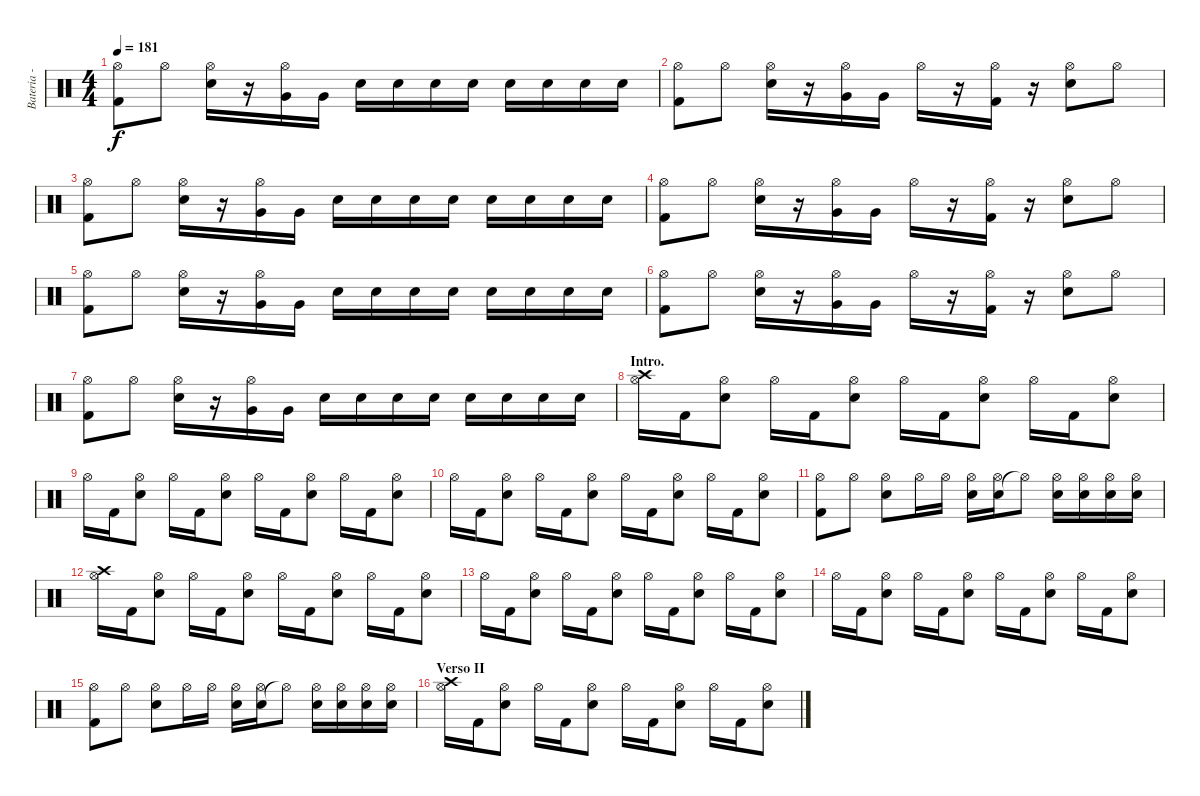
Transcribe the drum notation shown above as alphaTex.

\track ("Bateria - Larzon" "Bateria - ") {instrument percussion}
\staff {score}
\articulation defaults
\ts (4 4)
\tempo 181
\clef neutral
\ks c
("Kick (hit) 2" "Hi-Hat (open)").8{dy f} "Hi-Hat (open)".8 ("Electric Snare (hit)" "Hi-Hat (open)").16 r.16 ("Very Low Tom (hit)" "Hi-Hat (open)").16 "Very Low Tom (hit)".16 "Electric Snare (hit)".16 "Electric Snare (hit)".16 "Electric Snare (hit)".16 "Electric Snare (hit)".16 "Electric Snare (hit)".16 "Electric Snare (hit)".16 "Electric Snare (hit)".16 "Electric Snare (hit)".16 |
("Kick (hit) 2" "Hi-Hat (open)").8 "Hi-Hat (open)".8 ("Electric Snare (hit)" "Hi-Hat (open)").16 r.16 ("Very Low Tom (hit)" "Hi-Hat (open)").16 "Very Low Tom (hit)".16 "Hi-Hat (open)".16 r.16 ("Kick (hit) 2" "Hi-Hat (open)").16 r.16 ("Electric Snare (hit)" "Hi-Hat (open)").8 "Hi-Hat (open)".8 |
("Kick (hit) 2" "Hi-Hat (open)").8 "Hi-Hat (open)".8 ("Electric Snare (hit)" "Hi-Hat (open)").16 r.16 ("Very Low Tom (hit)" "Hi-Hat (open)").16 "Very Low Tom (hit)".16 "Electric Snare (hit)".16 "Electric Snare (hit)".16 "Electric Snare (hit)".16 "Electric Snare (hit)".16 "Electric Snare (hit)".16 "Electric Snare (hit)".16 "Electric Snare (hit)".16 "Electric Snare (hit)".16 |
("Kick (hit) 2" "Hi-Hat (open)").8 "Hi-Hat (open)".8 ("Electric Snare (hit)" "Hi-Hat (open)").16 r.16 ("Very Low Tom (hit)" "Hi-Hat (open)").16 "Very Low Tom (hit)".16 "Hi-Hat (open)".16 r.16 ("Kick (hit) 2" "Hi-Hat (open)").16 r.16 ("Electric Snare (hit)" "Hi-Hat (open)").8 "Hi-Hat (open)".8 |
("Kick (hit) 2" "Hi-Hat (open)").8 "Hi-Hat (open)".8 ("Electric Snare (hit)" "Hi-Hat (open)").16 r.16 ("Very Low Tom (hit)" "Hi-Hat (open)").16 "Very Low Tom (hit)".16 "Electric Snare (hit)".16 "Electric Snare (hit)".16 "Electric Snare (hit)".16 "Electric Snare (hit)".16 "Electric Snare (hit)".16 "Electric Snare (hit)".16 "Electric Snare (hit)".16 "Electric Snare (hit)".16 |
("Kick (hit) 2" "Hi-Hat (open)").8 "Hi-Hat (open)".8 ("Electric Snare (hit)" "Hi-Hat (open)").16 r.16 ("Very Low Tom (hit)" "Hi-Hat (open)").16 "Very Low Tom (hit)".16 "Hi-Hat (open)".16 r.16 ("Kick (hit) 2" "Hi-Hat (open)").16 r.16 ("Electric Snare (hit)" "Hi-Hat (open)").8 "Hi-Hat (open)".8 |
("Kick (hit) 2" "Hi-Hat (open)").8 "Hi-Hat (open)".8 ("Electric Snare (hit)" "Hi-Hat (open)").16 r.16 ("Very Low Tom (hit)" "Hi-Hat (open)").16 "Very Low Tom (hit)".16 "Electric Snare (hit)".16 "Electric Snare (hit)".16 "Electric Snare (hit)".16 "Electric Snare (hit)".16 "Electric Snare (hit)".16 "Electric Snare (hit)".16 "Electric Snare (hit)".16 "Electric Snare (hit)".16 |
\section ("" "Intro.")
("Crash high (hit)" "Hi-Hat (open)").16 "Kick (hit) 2".16 ("Electric Snare (hit)" "Hi-Hat (open)").8 "Hi-Hat (open)".16 "Kick (hit) 2".16 ("Electric Snare (hit)" "Hi-Hat (open)").8 "Hi-Hat (open)".16 "Kick (hit) 2".16 ("Electric Snare (hit)" "Hi-Hat (open)").8 "Hi-Hat (open)".16 "Kick (hit) 2".16 ("Electric Snare (hit)" "Hi-Hat (open)").8 |
"Hi-Hat (open)".16 "Kick (hit) 2".16 ("Electric Snare (hit)" "Hi-Hat (open)").8 "Hi-Hat (open)".16 "Kick (hit) 2".16 ("Electric Snare (hit)" "Hi-Hat (open)").8 "Hi-Hat (open)".16 "Kick (hit) 2".16 ("Electric Snare (hit)" "Hi-Hat (open)").8 "Hi-Hat (open)".16 "Kick (hit) 2".16 ("Electric Snare (hit)" "Hi-Hat (open)").8 |
"Hi-Hat (open)".16 "Kick (hit) 2".16 ("Electric Snare (hit)" "Hi-Hat (open)").8 "Hi-Hat (open)".16 "Kick (hit) 2".16 ("Electric Snare (hit)" "Hi-Hat (open)").8 "Hi-Hat (open)".16 "Kick (hit) 2".16 ("Electric Snare (hit)" "Hi-Hat (open)").8 "Hi-Hat (open)".16 "Kick (hit) 2".16 ("Electric Snare (hit)" "Hi-Hat (open)").8 |
("Kick (hit) 2" "Hi-Hat (open)").8 "Hi-Hat (open)".8 ("Electric Snare (hit)" "Hi-Hat (open)").8 "Hi-Hat (open)".16 "Hi-Hat (open)".16 ("Electric Snare (hit)" "Hi-Hat (open)").16 ("Electric Snare (hit)" "Hi-Hat (open)").16 "Hi-Hat (open)"{t}.8 ("Electric Snare (hit)" "Hi-Hat (open)").16 ("Electric Snare (hit)" "Hi-Hat (open)").16 ("Electric Snare (hit)" "Hi-Hat (open)").16 ("Electric Snare (hit)" "Hi-Hat (open)").16 |
("Crash high (hit)" "Hi-Hat (open)").16 "Kick (hit) 2".16 ("Electric Snare (hit)" "Hi-Hat (open)").8 "Hi-Hat (open)".16 "Kick (hit) 2".16 ("Electric Snare (hit)" "Hi-Hat (open)").8 "Hi-Hat (open)".16 "Kick (hit) 2".16 ("Electric Snare (hit)" "Hi-Hat (open)").8 "Hi-Hat (open)".16 "Kick (hit) 2".16 ("Electric Snare (hit)" "Hi-Hat (open)").8 |
"Hi-Hat (open)".16 "Kick (hit) 2".16 ("Electric Snare (hit)" "Hi-Hat (open)").8 "Hi-Hat (open)".16 "Kick (hit) 2".16 ("Electric Snare (hit)" "Hi-Hat (open)").8 "Hi-Hat (open)".16 "Kick (hit) 2".16 ("Electric Snare (hit)" "Hi-Hat (open)").8 "Hi-Hat (open)".16 "Kick (hit) 2".16 ("Electric Snare (hit)" "Hi-Hat (open)").8 |
"Hi-Hat (open)".16 "Kick (hit) 2".16 ("Electric Snare (hit)" "Hi-Hat (open)").8 "Hi-Hat (open)".16 "Kick (hit) 2".16 ("Electric Snare (hit)" "Hi-Hat (open)").8 "Hi-Hat (open)".16 "Kick (hit) 2".16 ("Electric Snare (hit)" "Hi-Hat (open)").8 "Hi-Hat (open)".16 "Kick (hit) 2".16 ("Electric Snare (hit)" "Hi-Hat (open)").8 |
("Kick (hit) 2" "Hi-Hat (open)").8 "Hi-Hat (open)".8 ("Electric Snare (hit)" "Hi-Hat (open)").8 "Hi-Hat (open)".16 "Hi-Hat (open)".16 ("Electric Snare (hit)" "Hi-Hat (open)").16 ("Electric Snare (hit)" "Hi-Hat (open)").16 "Hi-Hat (open)"{t}.8 ("Electric Snare (hit)" "Hi-Hat (open)").16 ("Electric Snare (hit)" "Hi-Hat (open)").16 ("Electric Snare (hit)" "Hi-Hat (open)").16 ("Electric Snare (hit)" "Hi-Hat (open)").16 |
\section ("" "Verso II")
("Crash high (hit)" "Hi-Hat (open)").16 "Kick (hit) 2".16 ("Electric Snare (hit)" "Hi-Hat (open)").8 "Hi-Hat (open)".16 "Kick (hit) 2".16 ("Electric Snare (hit)" "Hi-Hat (open)").8 "Hi-Hat (open)".16 "Kick (hit) 2".16 ("Electric Snare (hit)" "Hi-Hat (open)").8 "Hi-Hat (open)".16 "Kick (hit) 2".16 ("Electric Snare (hit)" "Hi-Hat (open)").8
